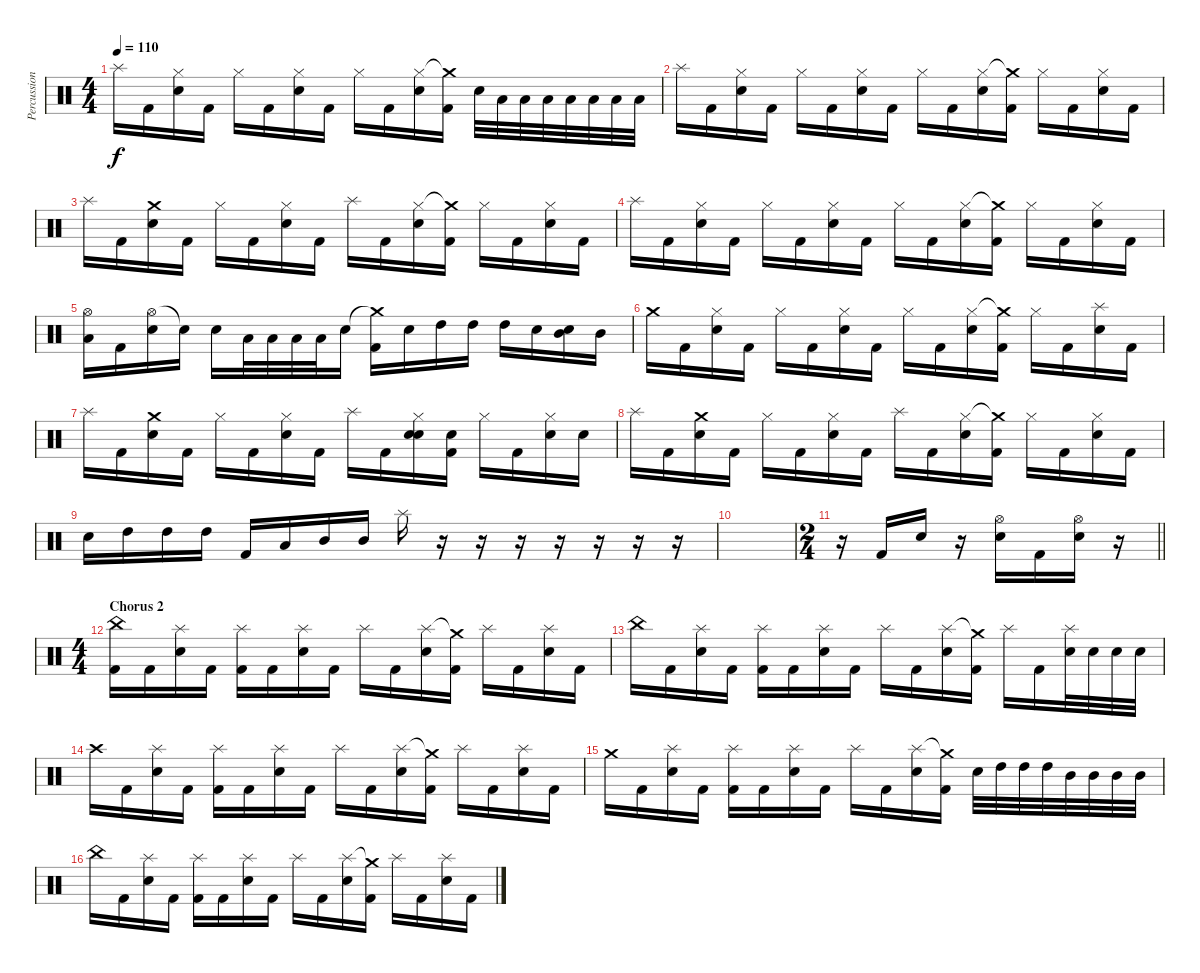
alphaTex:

\track ("Percussion" "Percussion") {instrument percussion}
\staff {score}
\articulation defaults
\ts (4 4)
\tempo 110
\clef neutral
\ks c "Splash (hit)".16{dy f} "Kick (hit) 2".16
("Hi-Hat (closed)" "Electric Snare (hit)").16 "Kick (hit) 2".16 "Hi-Hat (closed)".16 "Kick (hit) 2".16 ("Hi-Hat (closed)" "Electric Snare (hit)").16 "Kick (hit) 2".16 "Hi-Hat (closed)".16 "Kick (hit) 2".16 ("Hi-Hat (closed)" "Electric Snare (hit)").16 ("Crash medium (hit)"{t} "Kick (hit) 2").16 "Electric Snare (hit)".32 "Low Tom (hit)".32 "Low Tom (hit)".32 "Low Tom (hit)".32 "Low Floor Tom (hit)".32 "Low Floor Tom (hit)".32 "Low Floor Tom (hit)".32 "Low Floor Tom (hit)".32 |
"Splash (hit)".16 "Kick (hit) 2".16 ("Hi-Hat (closed)" "Electric Snare (hit)").16 "Kick (hit) 2".16 "Hi-Hat (closed)".16 "Kick (hit) 2".16 ("Hi-Hat (closed)" "Electric Snare (hit)").16 "Kick (hit) 2".16 "Hi-Hat (closed)".16 "Kick (hit) 2".16 ("Hi-Hat (closed)" "Electric Snare (hit)").16 ("Crash medium (hit)"{t} "Kick (hit) 2").16 "Hi-Hat (closed)".16 "Kick (hit) 2".16 ("Electric Snare (hit)" "Hi-Hat (closed)").16 "Kick (hit) 2".16 |
"Splash (hit)".16 "Kick (hit) 2".16 ("Crash medium (hit)" "Electric Snare (hit)").16 "Kick (hit) 2".16 "Hi-Hat (closed)".16 "Kick (hit) 2".16 ("Hi-Hat (closed)" "Electric Snare (hit)").16 "Kick (hit) 2".16 "Splash (hit)".16 "Kick (hit) 2".16 ("Hi-Hat (closed)" "Electric Snare (hit)").16 ("Crash medium (hit)"{t} "Kick (hit) 2").16 "Hi-Hat (closed)".16 "Kick (hit) 2".16 ("Electric Snare (hit)" "Hi-Hat (closed)").16 "Kick (hit) 2".16 |
"Splash (hit)".16 "Kick (hit) 2".16 ("Hi-Hat (closed)" "Electric Snare (hit)").16 "Kick (hit) 2".16 "Hi-Hat (closed)".16 "Kick (hit) 2".16 ("Hi-Hat (closed)" "Electric Snare (hit)").16 "Kick (hit) 2".16 "Hi-Hat (closed)".16 "Kick (hit) 2".16 ("Hi-Hat (closed)" "Electric Snare (hit)").16 ("Crash medium (hit)"{t} "Kick (hit) 2").16 "Hi-Hat (closed)".16 "Kick (hit) 2".16 ("Electric Snare (hit)" "Hi-Hat (closed)").16 "Kick (hit) 2".16 |
("Low Tom (hit)" "Hi-Hat (open)").16 "Kick (hit) 2".16 ("Hi-Hat (open)" "Electric Snare (hit)").16 "Electric Snare (hit)"{t}.16 "Electric Snare (hit)".16 "Low Floor Tom (hit)".32 "Low Floor Tom (hit)".32 "Low Floor Tom (hit)".32 "Low Floor Tom (hit)".32 "Electric Snare (hit)".16 ("Crash medium (hit)"{t} "Kick (hit) 2").16 "Electric Snare (hit)".16 "High Tom (hit)".16 "High Tom (hit)".16 "High Tom (hit)".16 "Electric Snare (hit)".16 ("Electric Snare (hit)" "Mid Tom (hit)").16 "Mid Tom (hit)".16 |
"Crash medium (hit)".16 "Kick (hit) 2".16 ("Hi-Hat (closed)" "Electric Snare (hit)").16 "Kick (hit) 2".16 "Hi-Hat (closed)".16 "Kick (hit) 2".16 ("Hi-Hat (closed)" "Electric Snare (hit)").16 "Kick (hit) 2".16 "Hi-Hat (closed)".16 "Kick (hit) 2".16 ("Hi-Hat (closed)" "Electric Snare (hit)").16 ("Crash medium (hit)"{t} "Kick (hit) 2").16 "Hi-Hat (closed)".16 "Kick (hit) 2".16 ("Electric Snare (hit)" "Splash (hit)").16 "Kick (hit) 2".16 |
"Splash (hit)".16 "Kick (hit) 2".16 ("Crash medium (hit)" "Electric Snare (hit)").16 "Kick (hit) 2".16 "Hi-Hat (closed)".16 "Kick (hit) 2".16 ("Hi-Hat (closed)" "Electric Snare (hit)").16 "Kick (hit) 2".16 "Splash (hit)".16 "Kick (hit) 2".16 ("Electric Snare (hit)" "Hi-Hat (closed)" "Electric Snare (hit)").16 ("Electric Snare (hit)" "Kick (hit) 2").16 "Hi-Hat (closed)".16 "Kick (hit) 2".16 ("Electric Snare (hit)" "Hi-Hat (closed)").16 "Electric Snare (hit)".16 |
"Splash (hit)".16 "Kick (hit) 2".16 ("Crash medium (hit)" "Electric Snare (hit)").16 "Kick (hit) 2".16 "Hi-Hat (closed)".16 "Kick (hit) 2".16 ("Hi-Hat (closed)" "Electric Snare (hit)").16 "Kick (hit) 2".16 "Splash (hit)".16 "Kick (hit) 2".16 ("Hi-Hat (closed)" "Electric Snare (hit)").16 ("Crash medium (hit)"{t} "Kick (hit) 2").16 "Hi-Hat (closed)".16 "Kick (hit) 2".16 ("Electric Snare (hit)" "Hi-Hat (closed)").16 "Kick (hit) 2".16 |
"Electric Snare (hit)".16 "High Tom (hit)".16 "High Tom (hit)".16 "High Tom (hit)".16 "Kick (hit) 2".16 "Low Tom (hit)".16 "Mid Tom (hit)".16 "Mid Tom (hit)".16 "Splash (hit)".16 r.16 r.16 r.16 r.16 r.16 r.16 r.16 |
|
\ts (2 4)
\barLineRight lightlight
r.16 "Kick (hit) 2".16 "Electric Snare (hit)".16 r.16 ("Hi-Hat (open)" "Snare (hit) 2").16 "Kick (hit) 2".16 ("Hi-Hat (open)" "Snare (hit) 2").16 r.16 |
\ts (4 4)
\section ("" "Chorus 2")
("Kick (hit) 2" "China (hit)").16 "Kick (hit) 2".16 ("Splash (hit)" "Electric Snare (hit)").16 "Kick (hit) 2".16 ("Splash (hit)" "Kick (hit) 2").16 "Kick (hit) 2".16 ("Splash (hit)" "Electric Snare (hit)").16 "Kick (hit) 2".16 "Splash (hit)".16 "Kick (hit) 2".16 ("Splash (hit)" "Electric Snare (hit)").16 ("Crash medium (hit)"{t} "Kick (hit) 2").16 "Splash (hit)".16 "Kick (hit) 2".16 ("Electric Snare (hit)" "Splash (hit)").16 "Kick (hit) 2".16 |
"China (hit)".16 "Kick (hit) 2".16 ("Splash (hit)" "Electric Snare (hit)").16 "Kick (hit) 2".16 ("Splash (hit)" "Kick (hit) 2").16 "Kick (hit) 2".16 ("Splash (hit)" "Electric Snare (hit)").16 "Kick (hit) 2".16 "Splash (hit)".16 "Kick (hit) 2".16 ("Splash (hit)" "Electric Snare (hit)").16 ("Crash medium (hit)"{t} "Kick (hit) 2").16 "Splash (hit)".16 "Kick (hit) 2".16 ("Electric Snare (hit)" "Splash (hit)").32 "Electric Snare (hit)".32 "Electric Snare (hit)".32 "Electric Snare (hit)".32 |
"Crash high (hit)".16 "Kick (hit) 2".16 ("Splash (hit)" "Electric Snare (hit)").16 "Kick (hit) 2".16 ("Splash (hit)" "Kick (hit) 2").16 "Kick (hit) 2".16 ("Splash (hit)" "Electric Snare (hit)").16 "Kick (hit) 2".16 "Splash (hit)".16 "Kick (hit) 2".16 ("Splash (hit)" "Electric Snare (hit)").16 ("Crash medium (hit)"{t} "Kick (hit) 2").16 "Splash (hit)".16 "Kick (hit) 2".16 ("Electric Snare (hit)" "Splash (hit)").16 "Kick (hit) 2".16 |
"Crash medium (hit)".16 "Kick (hit) 2".16 ("Splash (hit)" "Electric Snare (hit)").16 "Kick (hit) 2".16 ("Splash (hit)" "Kick (hit) 2").16 "Kick (hit) 2".16 ("Splash (hit)" "Electric Snare (hit)").16 "Kick (hit) 2".16 "Splash (hit)".16 "Kick (hit) 2".16 ("Splash (hit)" "Electric Snare (hit)").16 ("Crash medium (hit)"{t} "Kick (hit) 2").16 "Electric Snare (hit)".32 "High Tom (hit)".32 "High Tom (hit)".32 "High Tom (hit)".32 "Mid Tom (hit)".32 "Mid Tom (hit)".32 "Mid Tom (hit)".32 "Mid Tom (hit)".32 |
"China (hit)".16 "Kick (hit) 2".16 ("Splash (hit)" "Electric Snare (hit)").16 "Kick (hit) 2".16 ("Splash (hit)" "Kick (hit) 2").16 "Kick (hit) 2".16 ("Splash (hit)" "Electric Snare (hit)").16 "Kick (hit) 2".16 "Splash (hit)".16 "Kick (hit) 2".16 ("Splash (hit)" "Electric Snare (hit)").16 ("Crash medium (hit)"{t} "Kick (hit) 2").16 "Splash (hit)".16 "Kick (hit) 2".16 ("Electric Snare (hit)" "Splash (hit)").16 "Kick (hit) 2".16
